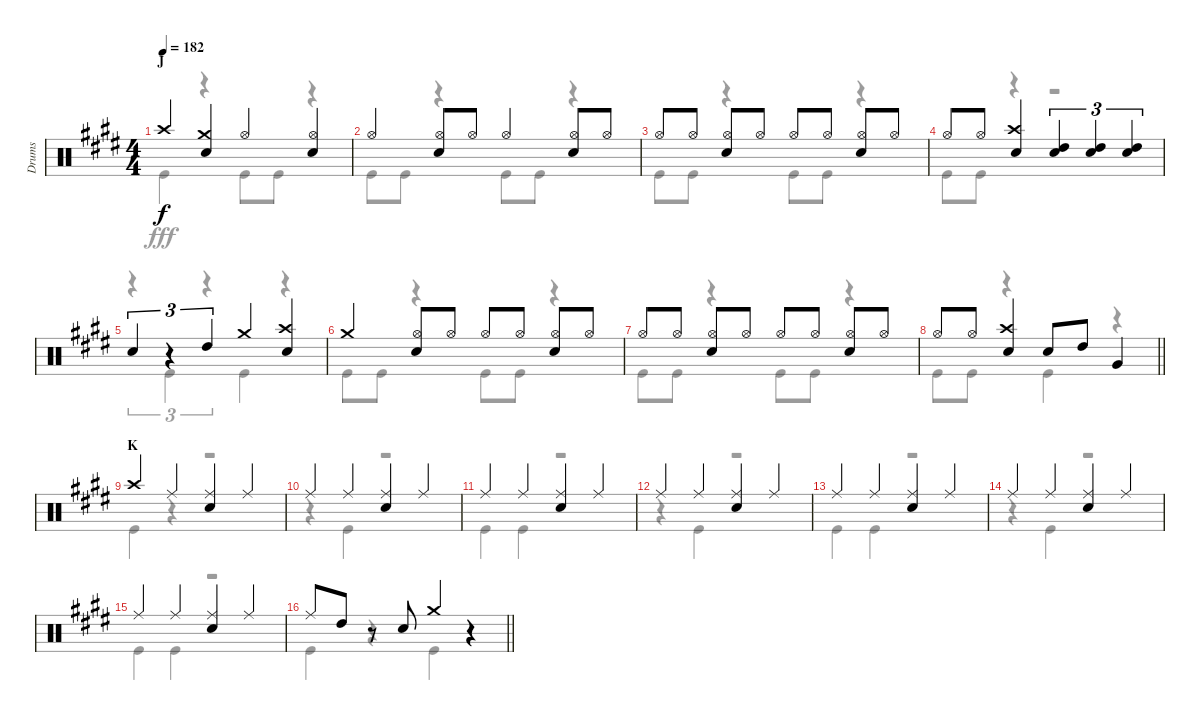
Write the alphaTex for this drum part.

\track ("Drums" "Drums") {instrument percussion}
\staff {score}
\articulation defaults
\voice
\ts (4 4)
\section ("" "J")
\tempo 182
\clef neutral
\ks e "Crash high (hit)".4{dy f}
("Crash medium (hit)" "Snare (hit) 2").4 "Hi-Hat (open)".4 ("Hi-Hat (open)" "Snare (hit) 2").4 |
"Hi-Hat (open)".4 ("Hi-Hat (open)" "Snare (hit) 2").8 "Hi-Hat (open)".8 "Hi-Hat (open)".4 ("Hi-Hat (open)" "Snare (hit) 2").8 "Hi-Hat (open)".8 |
"Hi-Hat (open)".8 "Hi-Hat (open)".8 ("Hi-Hat (open)" "Snare (hit) 2").8 "Hi-Hat (open)".8 "Hi-Hat (open)".8 "Hi-Hat (open)".8 ("Hi-Hat (open)" "Snare (hit) 2").8 "Hi-Hat (open)".8 |
"Hi-Hat (open)".8 "Hi-Hat (open)".8 ("Crash high (hit)" "Snare (hit) 2").4 ("High Tom (hit)" "Snare (hit) 2").4{tu (3 2)} ("High Tom (hit)" "Snare (hit) 2").4{tu (3 2)} ("High Tom (hit)" "Snare (hit) 2").4{tu (3 2)} |
"Snare (hit) 2".4{tu (3 2)} r.4{tu (3 2)} "High Tom (hit)".4{tu (3 2)} "Crash medium (hit)".4 ("Crash high (hit)" "Snare (hit) 2").4 |
"Crash medium (hit)".4 ("Hi-Hat (open)" "Snare (hit) 2").8 "Hi-Hat (open)".8 "Hi-Hat (open)".8 "Hi-Hat (open)".8 ("Hi-Hat (open)" "Snare (hit) 2").8 "Hi-Hat (open)".8 |
"Hi-Hat (open)".8 "Hi-Hat (open)".8 ("Hi-Hat (open)" "Snare (hit) 2").8 "Hi-Hat (open)".8 "Hi-Hat (open)".8 "Hi-Hat (open)".8 ("Hi-Hat (open)" "Snare (hit) 2").8 "Hi-Hat (open)".8 |
\barLineRight lightlight "Hi-Hat (open)".8 "Hi-Hat (open)".8
("Crash high (hit)" "Snare (hit) 2").4 "Snare (hit) 2".8 "High Tom (hit)".8 "Very Low Tom (hit)".4 |
\section ("" "K")
"Crash high (hit)".4 "Ride (middle)".4 ("Ride (middle)" "Snare (hit) 2").4 "Ride (middle)".4 |
"Ride (middle)".4 "Ride (middle)".4 ("Ride (middle)" "Snare (hit) 2").4 "Ride (middle)".4 |
"Ride (middle)".4 "Ride (middle)".4 ("Ride (middle)" "Snare (hit) 2").4 "Ride (middle)".4 |
"Ride (middle)".4 "Ride (middle)".4 ("Ride (middle)" "Snare (hit) 2").4 "Ride (middle)".4 |
"Ride (middle)".4 "Ride (middle)".4 ("Ride (middle)" "Snare (hit) 2").4 "Ride (middle)".4 |
"Ride (middle)".4 "Ride (middle)".4 ("Ride (middle)" "Snare (hit) 2").4 "Ride (middle)".4 |
"Ride (middle)".4 "Ride (middle)".4 ("Ride (middle)" "Snare (hit) 2").4 "Ride (middle)".4 |
\barLineRight lightlight "Ride (middle)".8 "High Tom (hit)".8
r.8 "Snare (hit) 2".8 "Crash medium (hit)".4 r.4
\voice
\clef neutral
\ottava regular
\simile none
\ks e "Kick (hit)".4{dy fff}
r.4 "Kick (hit)".8 "Kick (hit)".8 r.4 |
"Kick (hit)".8 "Kick (hit)".8 r.4 "Kick (hit)".8 "Kick (hit)".8 r.4 |
"Kick (hit)".8 "Kick (hit)".8 r.4 "Kick (hit)".8 "Kick (hit)".8 r.4 |
"Kick (hit)".8 "Kick (hit)".8 r.4 r.2 |
r.4{tu (3 2)} "Kick (hit)".4{tu (3 2)} r.4{tu (3 2)} "Kick (hit)".4 r.4 |
"Kick (hit)".8 "Kick (hit)".8 r.4 "Kick (hit)".8 "Kick (hit)".8 r.4 |
"Kick (hit)".8 "Kick (hit)".8 r.4 "Kick (hit)".8 "Kick (hit)".8 r.4 |
\barLineRight lightlight "Kick (hit)".8 "Kick (hit)".8
r.4 "Kick (hit)".4 r.4 |
"Kick (hit)".4 r.4 r.2 |
r.4 "Kick (hit)".4 r.2 |
"Kick (hit)".4 "Kick (hit)".4 r.2 |
r.4 "Kick (hit)".4 r.2 |
"Kick (hit)".4 "Kick (hit)".4 r.2 |
r.4 "Kick (hit)".4 r.2 |
"Kick (hit)".4 "Kick (hit)".4 r.2 |
\barLineRight lightlight "Kick (hit)".4
r.4 "Kick (hit)".4 r.4
